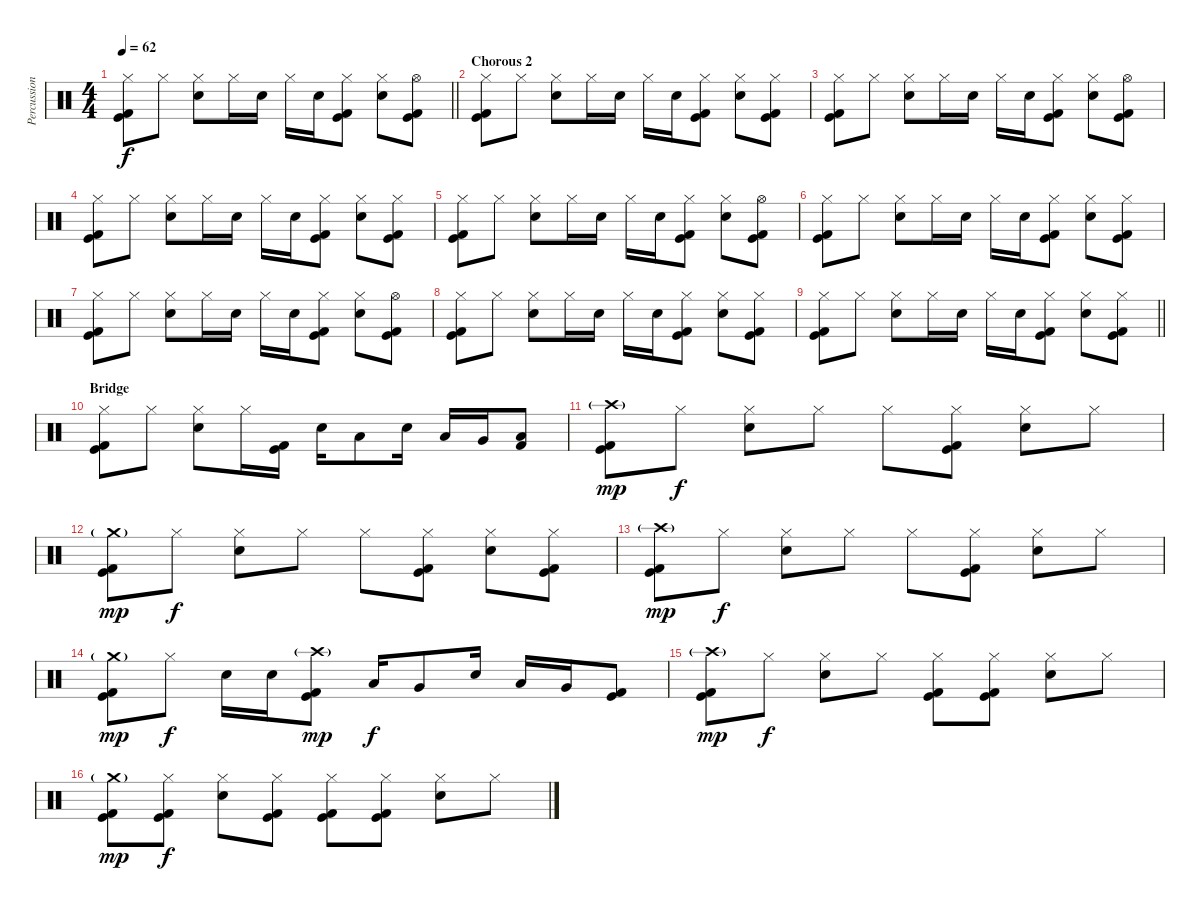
\track ("Percussion" "Percussion") {instrument percussion}
\staff {score}
\articulation defaults
\ts (4 4)
\tempo 62
\clef neutral
\barLineRight lightlight
\ks c
("Hi-Hat (closed)" "Kick (hit)" "Kick (hit) 2").8{dy f} "Hi-Hat (closed)".8 ("Hi-Hat (closed)" "Snare (hit) 2").8 "Hi-Hat (closed)".16 "Snare (hit) 2".16 "Hi-Hat (closed)".16 "Snare (hit) 2".16 ("Hi-Hat (closed)" "Kick (hit)" "Kick (hit) 2").8 ("Hi-Hat (closed)" "Snare (hit) 2").8 ("Hi-Hat (open)" "Kick (hit)" "Kick (hit) 2").8 |
\section ("" "Chorous 2")
("Hi-Hat (closed)" "Kick (hit)" "Kick (hit) 2").8 "Hi-Hat (closed)".8 ("Hi-Hat (closed)" "Snare (hit) 2").8 "Hi-Hat (closed)".16 "Snare (hit) 2".16 "Hi-Hat (closed)".16 "Snare (hit) 2".16 ("Hi-Hat (closed)" "Kick (hit)" "Kick (hit) 2").8 ("Hi-Hat (closed)" "Snare (hit) 2").8 ("Hi-Hat (closed)" "Kick (hit)" "Kick (hit) 2").8 |
("Hi-Hat (closed)" "Kick (hit)" "Kick (hit) 2").8 "Hi-Hat (closed)".8 ("Hi-Hat (closed)" "Snare (hit) 2").8 "Hi-Hat (closed)".16 "Snare (hit) 2".16 "Hi-Hat (closed)".16 "Snare (hit) 2".16 ("Hi-Hat (closed)" "Kick (hit)" "Kick (hit) 2").8 ("Hi-Hat (closed)" "Snare (hit) 2").8 ("Hi-Hat (open)" "Kick (hit)" "Kick (hit) 2").8 |
("Hi-Hat (closed)" "Kick (hit)" "Kick (hit) 2").8 "Hi-Hat (closed)".8 ("Hi-Hat (closed)" "Snare (hit) 2").8 "Hi-Hat (closed)".16 "Snare (hit) 2".16 "Hi-Hat (closed)".16 "Snare (hit) 2".16 ("Hi-Hat (closed)" "Kick (hit)" "Kick (hit) 2").8 ("Hi-Hat (closed)" "Snare (hit) 2").8 ("Hi-Hat (closed)" "Kick (hit)" "Kick (hit) 2").8 |
("Hi-Hat (closed)" "Kick (hit)" "Kick (hit) 2").8 "Hi-Hat (closed)".8 ("Hi-Hat (closed)" "Snare (hit) 2").8 "Hi-Hat (closed)".16 "Snare (hit) 2".16 "Hi-Hat (closed)".16 "Snare (hit) 2".16 ("Hi-Hat (closed)" "Kick (hit)" "Kick (hit) 2").8 ("Hi-Hat (closed)" "Snare (hit) 2").8 ("Hi-Hat (open)" "Kick (hit)" "Kick (hit) 2").8 |
("Hi-Hat (closed)" "Kick (hit)" "Kick (hit) 2").8 "Hi-Hat (closed)".8 ("Hi-Hat (closed)" "Snare (hit) 2").8 "Hi-Hat (closed)".16 "Snare (hit) 2".16 "Hi-Hat (closed)".16 "Snare (hit) 2".16 ("Hi-Hat (closed)" "Kick (hit)" "Kick (hit) 2").8 ("Hi-Hat (closed)" "Snare (hit) 2").8 ("Hi-Hat (closed)" "Kick (hit)" "Kick (hit) 2").8 |
("Hi-Hat (closed)" "Kick (hit)" "Kick (hit) 2").8 "Hi-Hat (closed)".8 ("Hi-Hat (closed)" "Snare (hit) 2").8 "Hi-Hat (closed)".16 "Snare (hit) 2".16 "Hi-Hat (closed)".16 "Snare (hit) 2".16 ("Hi-Hat (closed)" "Kick (hit)" "Kick (hit) 2").8 ("Hi-Hat (closed)" "Snare (hit) 2").8 ("Hi-Hat (open)" "Kick (hit)" "Kick (hit) 2").8 |
("Hi-Hat (closed)" "Kick (hit)" "Kick (hit) 2").8 "Hi-Hat (closed)".8 ("Hi-Hat (closed)" "Snare (hit) 2").8 "Hi-Hat (closed)".16 "Snare (hit) 2".16 "Hi-Hat (closed)".16 "Snare (hit) 2".16 ("Hi-Hat (closed)" "Kick (hit)" "Kick (hit) 2").8 ("Hi-Hat (closed)" "Snare (hit) 2").8 ("Hi-Hat (closed)" "Kick (hit)" "Kick (hit) 2").8 |
\barLineRight lightlight
("Hi-Hat (closed)" "Kick (hit)" "Kick (hit) 2").8 "Hi-Hat (closed)".8 ("Hi-Hat (closed)" "Snare (hit) 2").8 "Hi-Hat (closed)".16 "Snare (hit) 2".16 "Hi-Hat (closed)".16 "Snare (hit) 2".16 ("Hi-Hat (closed)" "Kick (hit)" "Kick (hit) 2").8 ("Hi-Hat (closed)" "Snare (hit) 2").8 ("Hi-Hat (closed)" "Kick (hit)" "Kick (hit) 2").8 |
\section ("" "Bridge")
("Hi-Hat (closed)" "Kick (hit)" "Kick (hit) 2").8 "Hi-Hat (closed)".8 ("Hi-Hat (closed)" "Snare (hit) 2").8 "Hi-Hat (closed)".16 ("Kick (hit)" "Kick (hit) 2").16 "Electric Snare (hit)".16 "Low Tom (hit)".8 "Electric Snare (hit)".16 "Low Tom (hit)".16 "Very Low Tom (hit)".16 ("Kick (hit) 2" "Low Floor Tom (hit)").8 |
("Crash high (hit)"{g} "Kick (hit)" "Kick (hit) 2").8{dy mp} "Hi-Hat (closed)".8{dy f} ("Hi-Hat (closed)" "Electric Snare (hit)").8 "Hi-Hat (closed)".8 "Hi-Hat (closed)".8 ("Hi-Hat (closed)" "Kick (hit)" "Kick (hit) 2").8 ("Hi-Hat (closed)" "Electric Snare (hit)").8 "Hi-Hat (closed)".8 |
("Crash medium (hit)"{g} "Kick (hit)" "Kick (hit) 2").8{dy mp} "Hi-Hat (closed)".8{dy f} ("Hi-Hat (closed)" "Electric Snare (hit)").8 "Hi-Hat (closed)".8 "Hi-Hat (closed)".8 ("Hi-Hat (closed)" "Kick (hit)" "Kick (hit) 2").8 ("Hi-Hat (closed)" "Electric Snare (hit)").8 ("Hi-Hat (closed)" "Kick (hit)" "Kick (hit) 2").8 |
("Crash high (hit)"{g} "Kick (hit)" "Kick (hit) 2").8{dy mp} "Hi-Hat (closed)".8{dy f} ("Hi-Hat (closed)" "Electric Snare (hit)").8 "Hi-Hat (closed)".8 "Hi-Hat (closed)".8 ("Hi-Hat (closed)" "Kick (hit)" "Kick (hit) 2").8 ("Hi-Hat (closed)" "Electric Snare (hit)").8 "Hi-Hat (closed)".8 |
("Crash medium (hit)"{g} "Kick (hit)" "Kick (hit) 2").8{dy mp} "Hi-Hat (closed)".8{dy f} "Electric Snare (hit)".16 "Electric Snare (hit)".16 ("Crash high (hit)"{g} "Kick (hit)" "Kick (hit) 2").8{dy mp} "Low Tom (hit)".16{dy f} "Very Low Tom (hit)".8 "Electric Snare (hit)".16 "Low Tom (hit)".16 "Very Low Tom (hit)".16 ("Kick (hit)" "Kick (hit) 2").8 |
("Crash high (hit)"{g} "Kick (hit)" "Kick (hit) 2").8{dy mp} "Hi-Hat (closed)".8{dy f} ("Hi-Hat (closed)" "Electric Snare (hit)").8 "Hi-Hat (closed)".8 ("Hi-Hat (closed)" "Kick (hit)" "Kick (hit) 2").8 ("Hi-Hat (closed)" "Kick (hit)" "Kick (hit) 2").8 ("Hi-Hat (closed)" "Electric Snare (hit)").8 "Hi-Hat (closed)".8 |
("Crash medium (hit)"{g} "Kick (hit)" "Kick (hit) 2").8{dy mp} ("Hi-Hat (closed)" "Kick (hit)" "Kick (hit) 2").8{dy f} ("Hi-Hat (closed)" "Electric Snare (hit)").8 ("Hi-Hat (closed)" "Kick (hit)" "Kick (hit) 2").8 ("Hi-Hat (closed)" "Kick (hit)" "Kick (hit) 2").8 ("Hi-Hat (closed)" "Kick (hit)" "Kick (hit) 2").8 ("Hi-Hat (closed)" "Electric Snare (hit)").8 "Hi-Hat (closed)".8
